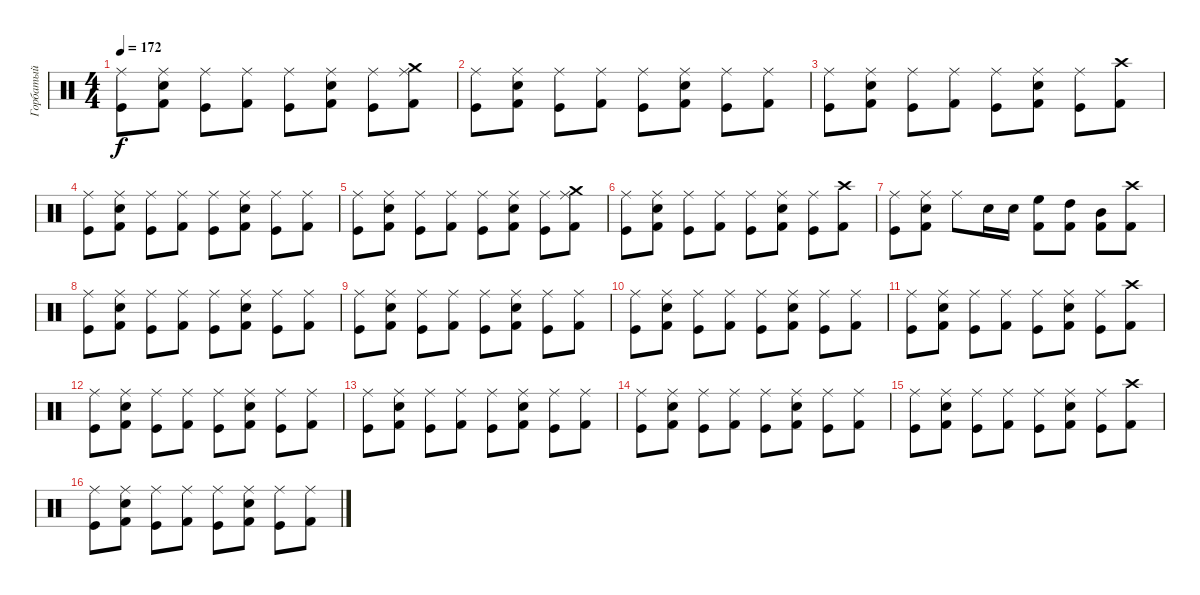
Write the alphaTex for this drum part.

\track ("Горбатый" "Горбатый") {instrument percussion}
\staff {score}
\articulation defaults
\ts (4 4)
\tempo 172
\clef neutral
\ks c
("Ride (middle)" "Kick (hit)").8{dy f} ("Electric Snare (hit)" "Ride (middle)" "Kick (hit) 2").8 ("Ride (middle)" "Kick (hit)").8 ("Ride (middle)" "Kick (hit) 2").8 ("Ride (middle)" "Kick (hit)").8 ("Electric Snare (hit)" "Ride (middle)" "Kick (hit) 2").8 ("Ride (middle)" "Kick (hit)").8 ("Ride (middle)" "Crash medium (hit)" "Kick (hit) 2").8 |
("Ride (middle)" "Kick (hit)").8 ("Electric Snare (hit)" "Ride (middle)" "Kick (hit) 2").8 ("Ride (middle)" "Kick (hit)").8 ("Ride (middle)" "Kick (hit) 2").8 ("Ride (middle)" "Kick (hit)").8 ("Electric Snare (hit)" "Ride (middle)" "Kick (hit) 2").8 ("Ride (middle)" "Kick (hit)").8 ("Ride (middle)" "Kick (hit) 2").8 |
("Ride (middle)" "Kick (hit)").8 ("Electric Snare (hit)" "Ride (middle)" "Kick (hit) 2").8 ("Ride (middle)" "Kick (hit)").8 ("Ride (middle)" "Kick (hit) 2").8 ("Ride (middle)" "Kick (hit)").8 ("Electric Snare (hit)" "Ride (middle)" "Kick (hit) 2").8 ("Ride (middle)" "Kick (hit)").8 ("Crash high (hit)" "Kick (hit) 2").8 |
("Ride (middle)" "Kick (hit)").8 ("Electric Snare (hit)" "Ride (middle)" "Kick (hit) 2").8 ("Ride (middle)" "Kick (hit)").8 ("Ride (middle)" "Kick (hit) 2").8 ("Ride (middle)" "Kick (hit)").8 ("Electric Snare (hit)" "Ride (middle)" "Kick (hit) 2").8 ("Ride (middle)" "Kick (hit)").8 ("Ride (middle)" "Kick (hit) 2").8 |
("Ride (middle)" "Kick (hit)").8 ("Electric Snare (hit)" "Ride (middle)" "Kick (hit) 2").8 ("Ride (middle)" "Kick (hit)").8 ("Ride (middle)" "Kick (hit) 2").8 ("Ride (middle)" "Kick (hit)").8 ("Electric Snare (hit)" "Ride (middle)" "Kick (hit) 2").8 ("Ride (middle)" "Kick (hit)").8 ("Ride (middle)" "Crash medium (hit)" "Kick (hit) 2").8 |
("Ride (middle)" "Kick (hit)").8 ("Electric Snare (hit)" "Ride (middle)" "Kick (hit) 2").8 ("Ride (middle)" "Kick (hit)").8 ("Ride (middle)" "Kick (hit) 2").8 ("Ride (middle)" "Kick (hit)").8 ("Electric Snare (hit)" "Ride (middle)" "Kick (hit) 2").8 ("Ride (middle)" "Kick (hit)").8 ("Crash high (hit)" "Kick (hit) 2").8 |
("Ride (middle)" "Kick (hit)").8 ("Electric Snare (hit)" "Ride (middle)" "Kick (hit) 2").8 "Ride (middle)".8 "Electric Snare (hit)".16 "Electric Snare (hit)".16 ("Kick (hit) 2" "High Floor Tom (hit)").8 ("Kick (hit) 2" "High Tom (hit)").8 ("Kick (hit) 2" "Mid Tom (hit)").8 ("Crash high (hit)" "Kick (hit) 2").8 |
("Ride (middle)" "Kick (hit)").8 ("Electric Snare (hit)" "Ride (middle)" "Kick (hit) 2").8 ("Ride (middle)" "Kick (hit)").8 ("Ride (middle)" "Kick (hit) 2").8 ("Ride (middle)" "Kick (hit)").8 ("Electric Snare (hit)" "Ride (middle)" "Kick (hit) 2").8 ("Ride (middle)" "Kick (hit)").8 ("Ride (middle)" "Kick (hit) 2").8 |
("Ride (middle)" "Kick (hit)").8 ("Electric Snare (hit)" "Ride (middle)" "Kick (hit) 2").8 ("Ride (middle)" "Kick (hit)").8 ("Ride (middle)" "Kick (hit) 2").8 ("Ride (middle)" "Kick (hit)").8 ("Electric Snare (hit)" "Ride (middle)" "Kick (hit) 2").8 ("Ride (middle)" "Kick (hit)").8 ("Ride (middle)" "Kick (hit) 2").8 |
("Ride (middle)" "Kick (hit)").8 ("Electric Snare (hit)" "Ride (middle)" "Kick (hit) 2").8 ("Ride (middle)" "Kick (hit)").8 ("Ride (middle)" "Kick (hit) 2").8 ("Ride (middle)" "Kick (hit)").8 ("Electric Snare (hit)" "Ride (middle)" "Kick (hit) 2").8 ("Ride (middle)" "Kick (hit)").8 ("Ride (middle)" "Kick (hit) 2").8 |
("Ride (middle)" "Kick (hit)").8 ("Electric Snare (hit)" "Ride (middle)" "Kick (hit) 2").8 ("Ride (middle)" "Kick (hit)").8 ("Ride (middle)" "Kick (hit) 2").8 ("Ride (middle)" "Kick (hit)").8 ("Electric Snare (hit)" "Ride (middle)" "Kick (hit) 2").8 ("Ride (middle)" "Kick (hit)").8 ("Crash high (hit)" "Kick (hit) 2").8 |
("Ride (middle)" "Kick (hit)").8 ("Electric Snare (hit)" "Ride (middle)" "Kick (hit) 2").8 ("Ride (middle)" "Kick (hit)").8 ("Ride (middle)" "Kick (hit) 2").8 ("Ride (middle)" "Kick (hit)").8 ("Electric Snare (hit)" "Ride (middle)" "Kick (hit) 2").8 ("Ride (middle)" "Kick (hit)").8 ("Ride (middle)" "Kick (hit) 2").8 |
("Ride (middle)" "Kick (hit)").8 ("Electric Snare (hit)" "Ride (middle)" "Kick (hit) 2").8 ("Ride (middle)" "Kick (hit)").8 ("Ride (middle)" "Kick (hit) 2").8 ("Ride (middle)" "Kick (hit)").8 ("Electric Snare (hit)" "Ride (middle)" "Kick (hit) 2").8 ("Ride (middle)" "Kick (hit)").8 ("Ride (middle)" "Kick (hit) 2").8 |
("Ride (middle)" "Kick (hit)").8 ("Electric Snare (hit)" "Ride (middle)" "Kick (hit) 2").8 ("Ride (middle)" "Kick (hit)").8 ("Ride (middle)" "Kick (hit) 2").8 ("Ride (middle)" "Kick (hit)").8 ("Electric Snare (hit)" "Ride (middle)" "Kick (hit) 2").8 ("Ride (middle)" "Kick (hit)").8 ("Ride (middle)" "Kick (hit) 2").8 |
("Ride (middle)" "Kick (hit)").8 ("Electric Snare (hit)" "Ride (middle)" "Kick (hit) 2").8 ("Ride (middle)" "Kick (hit)").8 ("Ride (middle)" "Kick (hit) 2").8 ("Ride (middle)" "Kick (hit)").8 ("Electric Snare (hit)" "Ride (middle)" "Kick (hit) 2").8 ("Ride (middle)" "Kick (hit)").8 ("Crash high (hit)" "Kick (hit) 2").8 |
("Ride (middle)" "Kick (hit)").8 ("Electric Snare (hit)" "Ride (middle)" "Kick (hit) 2").8 ("Ride (middle)" "Kick (hit)").8 ("Ride (middle)" "Kick (hit) 2").8 ("Ride (middle)" "Kick (hit)").8 ("Electric Snare (hit)" "Ride (middle)" "Kick (hit) 2").8 ("Ride (middle)" "Kick (hit)").8 ("Ride (middle)" "Kick (hit) 2").8
